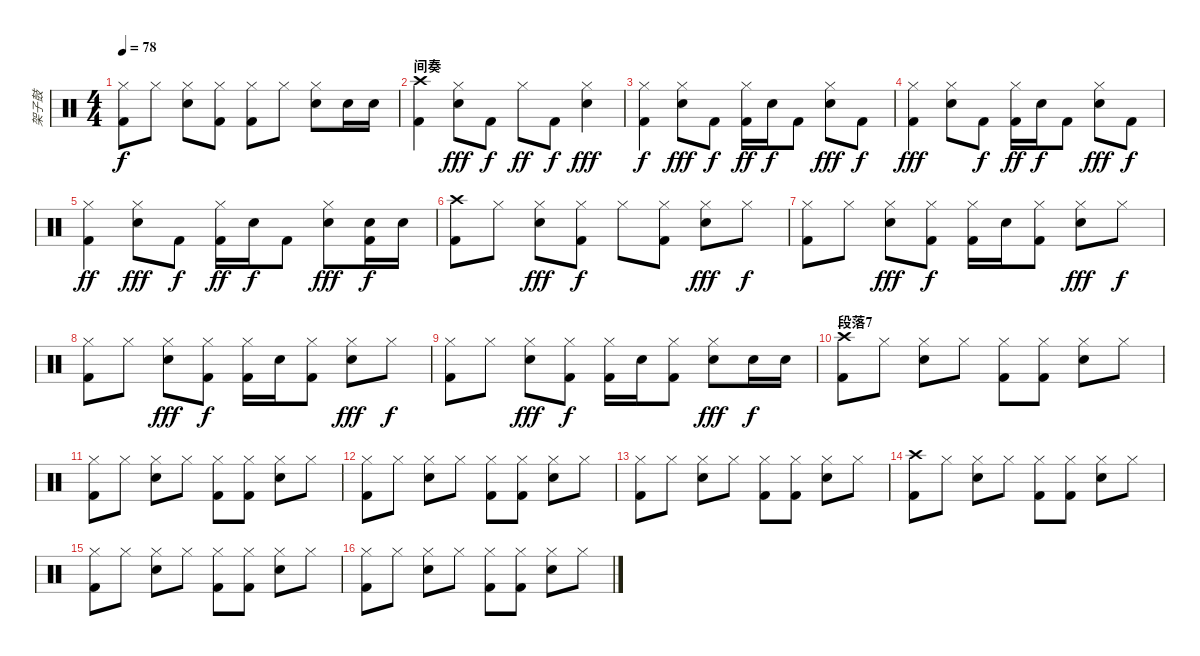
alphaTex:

\track ("架子鼓" "架子鼓") {instrument percussion}
\staff {score}
\articulation defaults
\ts (4 4)
\tempo 78
\clef neutral
\ks c
("Hi-Hat (closed)" "Kick (hit) 2").8{dy f} "Hi-Hat (closed)".8 ("Hi-Hat (closed)" "Electric Snare (hit)").8 ("Hi-Hat (closed)" "Kick (hit) 2").8 ("Hi-Hat (closed)" "Kick (hit) 2").8 "Hi-Hat (closed)".8 ("Hi-Hat (closed)" "Electric Snare (hit)").8 "Electric Snare (hit)".16 "Electric Snare (hit)".16 |
\section ("" "间奏")
("Crash high (hit)" "Kick (hit) 2").4 ("Hi-Hat (closed)" "Electric Snare (hit)").8{dy fff} "Kick (hit) 2".8{dy f} "Hi-Hat (closed)".8{dy ff} "Kick (hit) 2".8{dy f} ("Hi-Hat (closed)" "Electric Snare (hit)").4{dy fff} |
("Hi-Hat (closed)" "Kick (hit) 2").4{dy f} ("Hi-Hat (closed)" "Electric Snare (hit)").8{dy fff} "Kick (hit) 2".8{dy f} ("Hi-Hat (closed)" "Kick (hit) 2").16{dy ff} "Electric Snare (hit)".16{dy f} "Kick (hit) 2".8 ("Hi-Hat (closed)" "Electric Snare (hit)").8{dy fff} "Kick (hit) 2".8{dy f} |
("Hi-Hat (closed)" "Kick (hit) 2").4{dy fff} ("Hi-Hat (closed)" "Electric Snare (hit)").8 "Kick (hit) 2".8{dy f} ("Hi-Hat (closed)" "Kick (hit) 2").16{dy ff} "Electric Snare (hit)".16{dy f} "Kick (hit) 2".8 ("Hi-Hat (closed)" "Electric Snare (hit)").8{dy fff} "Kick (hit) 2".8{dy f} |
("Hi-Hat (closed)" "Kick (hit) 2").4{dy ff} ("Hi-Hat (closed)" "Electric Snare (hit)").8{dy fff} "Kick (hit) 2".8{dy f} ("Hi-Hat (closed)" "Kick (hit) 2").16{dy ff} "Electric Snare (hit)".16{dy f} "Kick (hit) 2".8 ("Hi-Hat (closed)" "Electric Snare (hit)").8{dy fff} ("Electric Snare (hit)" "Kick (hit) 2").16{dy f} "Electric Snare (hit)".16 |
("Crash high (hit)" "Kick (hit) 2").8 "Hi-Hat (closed)".8 ("Hi-Hat (closed)" "Electric Snare (hit)").8{dy fff} ("Hi-Hat (closed)" "Kick (hit) 2").8{dy f} "Hi-Hat (closed)".8 ("Hi-Hat (closed)" "Kick (hit) 2").8 ("Hi-Hat (closed)" "Electric Snare (hit)").8{dy fff} "Hi-Hat (closed)".8{dy f} |
("Hi-Hat (closed)" "Kick (hit) 2").8 "Hi-Hat (closed)".8 ("Hi-Hat (closed)" "Electric Snare (hit)").8{dy fff} ("Hi-Hat (closed)" "Kick (hit) 2").8{dy f} ("Hi-Hat (closed)" "Kick (hit) 2").16 "Electric Snare (hit)".16 ("Hi-Hat (closed)" "Kick (hit) 2").8 ("Hi-Hat (closed)" "Electric Snare (hit)").8{dy fff} "Hi-Hat (closed)".8{dy f} |
("Hi-Hat (closed)" "Kick (hit) 2").8 "Hi-Hat (closed)".8 ("Hi-Hat (closed)" "Electric Snare (hit)").8{dy fff} ("Hi-Hat (closed)" "Kick (hit) 2").8{dy f} ("Hi-Hat (closed)" "Kick (hit) 2").16 "Electric Snare (hit)".16 ("Hi-Hat (closed)" "Kick (hit) 2").8 ("Hi-Hat (closed)" "Electric Snare (hit)").8{dy fff} "Hi-Hat (closed)".8{dy f} |
("Hi-Hat (closed)" "Kick (hit) 2").8 "Hi-Hat (closed)".8 ("Hi-Hat (closed)" "Electric Snare (hit)").8{dy fff} ("Hi-Hat (closed)" "Kick (hit) 2").8{dy f} ("Hi-Hat (closed)" "Kick (hit) 2").16 "Electric Snare (hit)".16 ("Hi-Hat (closed)" "Kick (hit) 2").8 ("Hi-Hat (closed)" "Electric Snare (hit)").8{dy fff} "Electric Snare (hit)".16{dy f} "Electric Snare (hit)".16 |
\section ("" "段落7")
("Crash high (hit)" "Kick (hit) 2").8 "Hi-Hat (closed)".8 ("Hi-Hat (closed)" "Electric Snare (hit)").8 "Hi-Hat (closed)".8 ("Hi-Hat (closed)" "Kick (hit) 2").8 ("Hi-Hat (closed)" "Kick (hit) 2").8 ("Hi-Hat (closed)" "Electric Snare (hit)").8 "Hi-Hat (closed)".8 |
("Hi-Hat (closed)" "Kick (hit) 2").8 "Hi-Hat (closed)".8 ("Hi-Hat (closed)" "Electric Snare (hit)").8 "Hi-Hat (closed)".8 ("Hi-Hat (closed)" "Kick (hit) 2").8 ("Hi-Hat (closed)" "Kick (hit) 2").8 ("Hi-Hat (closed)" "Electric Snare (hit)").8 "Hi-Hat (closed)".8 |
("Hi-Hat (closed)" "Kick (hit) 2").8 "Hi-Hat (closed)".8 ("Hi-Hat (closed)" "Electric Snare (hit)").8 "Hi-Hat (closed)".8 ("Hi-Hat (closed)" "Kick (hit) 2").8 ("Hi-Hat (closed)" "Kick (hit) 2").8 ("Hi-Hat (closed)" "Electric Snare (hit)").8 "Hi-Hat (closed)".8 |
("Hi-Hat (closed)" "Kick (hit) 2").8 "Hi-Hat (closed)".8 ("Hi-Hat (closed)" "Electric Snare (hit)").8 "Hi-Hat (closed)".8 ("Hi-Hat (closed)" "Kick (hit) 2").8 ("Hi-Hat (closed)" "Kick (hit) 2").8 ("Hi-Hat (closed)" "Electric Snare (hit)").8 "Hi-Hat (closed)".8 |
("Crash high (hit)" "Kick (hit) 2").8 "Hi-Hat (closed)".8 ("Hi-Hat (closed)" "Electric Snare (hit)").8 "Hi-Hat (closed)".8 ("Hi-Hat (closed)" "Kick (hit) 2").8 ("Hi-Hat (closed)" "Kick (hit) 2").8 ("Hi-Hat (closed)" "Electric Snare (hit)").8 "Hi-Hat (closed)".8 |
("Hi-Hat (closed)" "Kick (hit) 2").8 "Hi-Hat (closed)".8 ("Hi-Hat (closed)" "Electric Snare (hit)").8 "Hi-Hat (closed)".8 ("Hi-Hat (closed)" "Kick (hit) 2").8 ("Hi-Hat (closed)" "Kick (hit) 2").8 ("Hi-Hat (closed)" "Electric Snare (hit)").8 "Hi-Hat (closed)".8 |
("Hi-Hat (closed)" "Kick (hit) 2").8 "Hi-Hat (closed)".8 ("Hi-Hat (closed)" "Electric Snare (hit)").8 "Hi-Hat (closed)".8 ("Hi-Hat (closed)" "Kick (hit) 2").8 ("Hi-Hat (closed)" "Kick (hit) 2").8 ("Hi-Hat (closed)" "Electric Snare (hit)").8 "Hi-Hat (closed)".8
